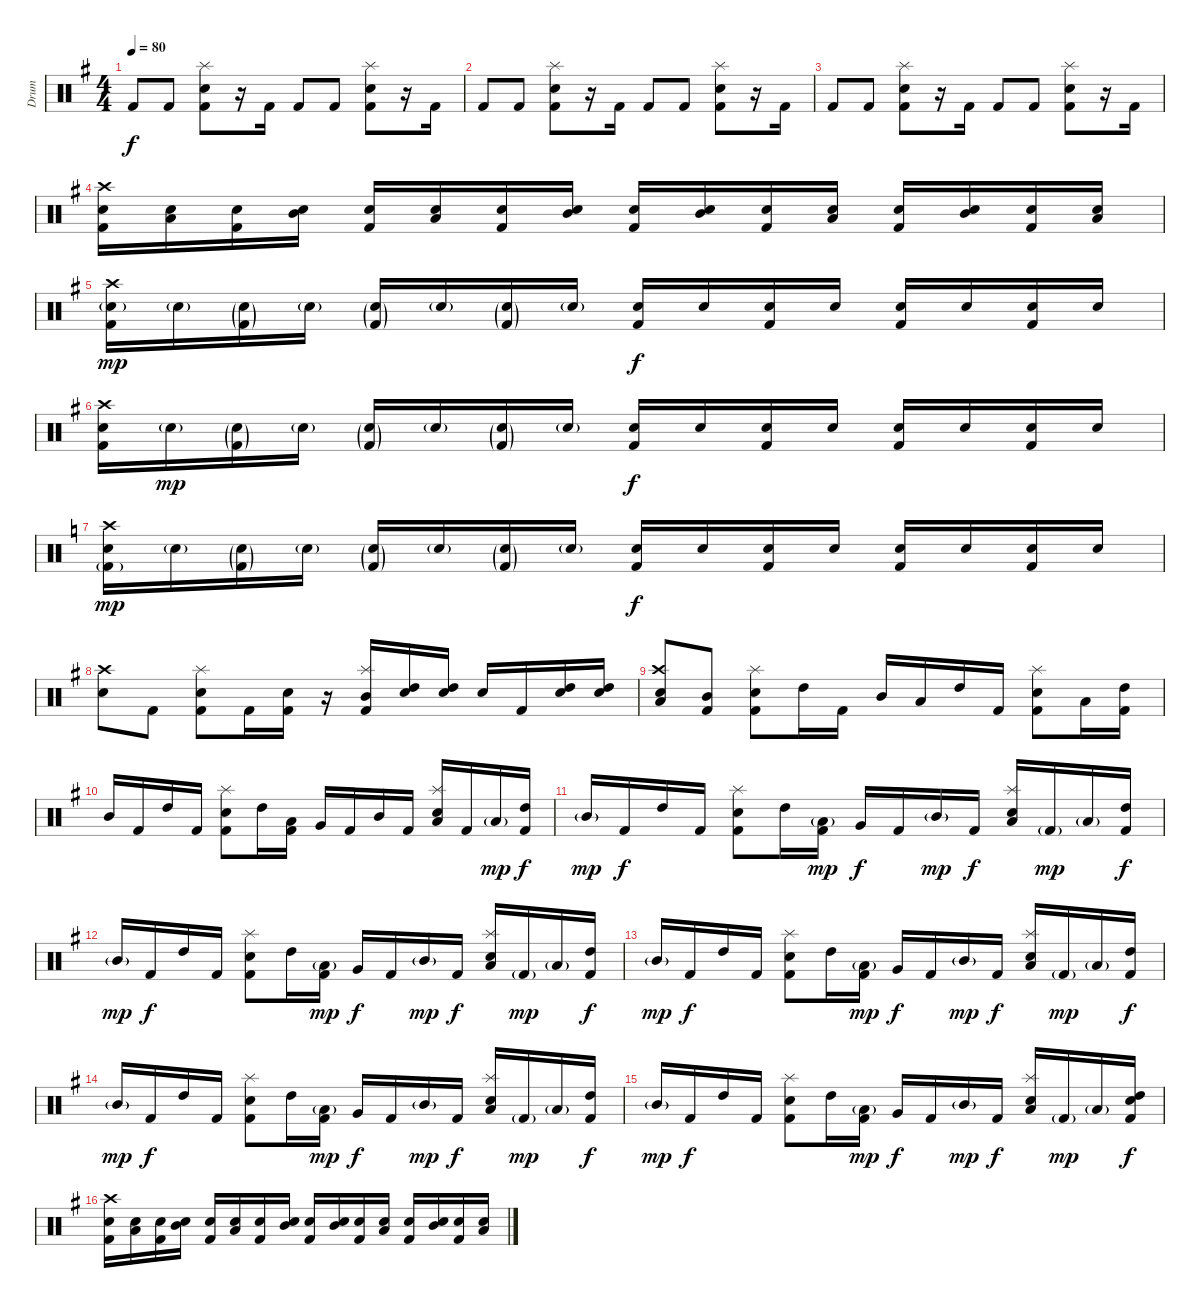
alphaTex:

\track ("Drum" "Drum") {instrument percussion}
\staff {score}
\articulation defaults
\ts (4 4)
\tempo 80
\clef neutral
\ks eminor "Kick (hit) 2".8{dy f} "Kick (hit) 2".8
("Electric Snare (hit)" "Kick (hit) 2" "Splash (hit)").8 r.16 "Kick (hit) 2".16 "Kick (hit) 2".8 "Kick (hit) 2".8 ("Electric Snare (hit)" "Kick (hit) 2" "Splash (hit)").8 r.16 "Kick (hit) 2".16 |
"Kick (hit) 2".8 "Kick (hit) 2".8 ("Electric Snare (hit)" "Kick (hit) 2" "Splash (hit)").8 r.16 "Kick (hit) 2".16 "Kick (hit) 2".8 "Kick (hit) 2".8 ("Electric Snare (hit)" "Kick (hit) 2" "Splash (hit)").8 r.16 "Kick (hit) 2".16 |
"Kick (hit) 2".8 "Kick (hit) 2".8 ("Electric Snare (hit)" "Kick (hit) 2" "Splash (hit)").8 r.16 "Kick (hit) 2".16 "Kick (hit) 2".8 "Kick (hit) 2".8 ("Electric Snare (hit)" "Kick (hit) 2" "Splash (hit)").8 r.16 "Kick (hit) 2".16 |
("Electric Snare (hit)" "Kick (hit) 2" "Crash high (hit)").16 ("Electric Snare (hit)" "Low Tom (hit)").16 ("Electric Snare (hit)" "Kick (hit) 2").16 ("Electric Snare (hit)" "Mid Tom (hit)").16 ("Electric Snare (hit)" "Kick (hit) 2").16 ("Electric Snare (hit)" "Low Tom (hit)").16 ("Electric Snare (hit)" "Kick (hit) 2").16 ("Electric Snare (hit)" "Mid Tom (hit)").16 ("Electric Snare (hit)" "Kick (hit) 2").16 ("Electric Snare (hit)" "Mid Tom (hit)").16 ("Electric Snare (hit)" "Kick (hit) 2").16 ("Electric Snare (hit)" "Low Tom (hit)").16 ("Electric Snare (hit)" "Kick (hit) 2").16 ("Electric Snare (hit)" "Mid Tom (hit)").16 ("Electric Snare (hit)" "Kick (hit) 2").16 ("Electric Snare (hit)" "Low Tom (hit)").16 |
("Electric Snare (hit)"{g} "Kick (hit) 2" "Crash high (hit)").16{dy mp} "Electric Snare (hit)"{g}.16 ("Electric Snare (hit)"{g} "Kick (hit) 2"{g}).16 "Electric Snare (hit)"{g}.16 ("Electric Snare (hit)"{g} "Kick (hit) 2"{g}).16 "Electric Snare (hit)"{g}.16 ("Electric Snare (hit)"{g} "Kick (hit) 2"{g}).16 "Electric Snare (hit)"{g}.16 ("Electric Snare (hit)" "Kick (hit) 2").16{dy f} "Electric Snare (hit)".16 ("Electric Snare (hit)" "Kick (hit) 2").16 "Electric Snare (hit)".16 ("Electric Snare (hit)" "Kick (hit) 2").16 "Electric Snare (hit)".16 ("Electric Snare (hit)" "Kick (hit) 2").16 "Electric Snare (hit)".16 |
("Electric Snare (hit)" "Kick (hit) 2" "Crash high (hit)").16 "Electric Snare (hit)"{g}.16{dy mp} ("Electric Snare (hit)"{g} "Kick (hit) 2"{g}).16 "Electric Snare (hit)"{g}.16 ("Electric Snare (hit)"{g} "Kick (hit) 2"{g}).16 "Electric Snare (hit)"{g}.16 ("Electric Snare (hit)"{g} "Kick (hit) 2"{g}).16 "Electric Snare (hit)"{g}.16 ("Electric Snare (hit)" "Kick (hit) 2").16{dy f} "Electric Snare (hit)".16 ("Electric Snare (hit)" "Kick (hit) 2").16 "Electric Snare (hit)".16 ("Electric Snare (hit)" "Kick (hit) 2").16 "Electric Snare (hit)".16 ("Electric Snare (hit)" "Kick (hit) 2").16 "Electric Snare (hit)".16 |
\ks c
("Electric Snare (hit)" "Kick (hit) 2"{g} "Crash high (hit)").16{dy mp} "Electric Snare (hit)"{g}.16 ("Electric Snare (hit)"{g} "Kick (hit) 2"{g}).16 "Electric Snare (hit)"{g}.16 ("Electric Snare (hit)"{g} "Kick (hit) 2"{g}).16 "Electric Snare (hit)"{g}.16 ("Electric Snare (hit)"{g} "Kick (hit) 2"{g}).16 "Electric Snare (hit)"{g}.16 ("Electric Snare (hit)" "Kick (hit) 2").16{dy f} "Electric Snare (hit)".16 ("Electric Snare (hit)" "Kick (hit) 2").16 "Electric Snare (hit)".16 ("Electric Snare (hit)" "Kick (hit) 2").16 "Electric Snare (hit)".16 ("Electric Snare (hit)" "Kick (hit) 2").16 "Electric Snare (hit)".16 |
\ks eminor
("Electric Snare (hit)" "Crash high (hit)").8 "Kick (hit) 2".8 ("Electric Snare (hit)" "Kick (hit) 2" "Splash (hit)").8 "Kick (hit) 2".16 ("Electric Snare (hit)" "Kick (hit) 2").16 r.16 ("Mid Tom (hit)" "Kick (hit) 2" "Splash (hit)").16 ("Electric Snare (hit)" "High Tom (hit)").16 ("Electric Snare (hit)" "High Tom (hit)").16 "Electric Snare (hit)".16 "Kick (hit) 2".16 ("Electric Snare (hit)" "High Tom (hit)").16 ("Electric Snare (hit)" "High Tom (hit)").16 |
("Electric Snare (hit)" "Low Tom (hit)" "Crash high (hit)").8 ("Mid Tom (hit)" "Kick (hit) 2").8 ("Electric Snare (hit)" "Kick (hit) 2" "Splash (hit)").8 "High Tom (hit)".16 "Kick (hit) 2".16 "Mid Tom (hit)".16 "Low Tom (hit)".16 "High Tom (hit)".16 "Kick (hit) 2".16 ("Electric Snare (hit)" "Kick (hit) 2" "Splash (hit)").8 "Low Tom (hit)".16 ("High Tom (hit)" "Kick (hit) 2").16 |
"Mid Tom (hit)".16 "Kick (hit) 2".16 "High Tom (hit)".16 "Kick (hit) 2".16 ("Electric Snare (hit)" "Kick (hit) 2" "Splash (hit)").8 "High Tom (hit)".16 ("Low Tom (hit)" "Kick (hit) 2").16 "Very Low Tom (hit)".16 "Kick (hit) 2".16 "Mid Tom (hit)".16 "Kick (hit) 2".16 ("Electric Snare (hit)" "Low Tom (hit)" "Splash (hit)").16 "Kick (hit) 2".16 "Low Tom (hit)"{g}.16{dy mp} ("High Tom (hit)" "Kick (hit) 2").16{dy f} |
"Mid Tom (hit)"{g}.16{dy mp} "Kick (hit) 2".16{dy f} "High Tom (hit)".16 "Kick (hit) 2".16 ("Electric Snare (hit)" "Kick (hit) 2" "Splash (hit)").8 "High Tom (hit)".16 ("Low Tom (hit)"{g} "Kick (hit) 2").16{dy mp} "Very Low Tom (hit)".16{dy f} "Kick (hit) 2".16 "Mid Tom (hit)"{g}.16{dy mp} "Kick (hit) 2".16{dy f} ("Electric Snare (hit)" "Low Tom (hit)" "Splash (hit)").16 "Kick (hit) 2"{g}.16{dy mp} "Low Tom (hit)"{g}.16 ("High Tom (hit)" "Kick (hit) 2").16{dy f} |
"Mid Tom (hit)"{g}.16{dy mp} "Kick (hit) 2".16{dy f} "High Tom (hit)".16 "Kick (hit) 2".16 ("Electric Snare (hit)" "Kick (hit) 2" "Splash (hit)").8 "High Tom (hit)".16 ("Low Tom (hit)"{g} "Kick (hit) 2").16{dy mp} "Very Low Tom (hit)".16{dy f} "Kick (hit) 2".16 "Mid Tom (hit)"{g}.16{dy mp} "Kick (hit) 2".16{dy f} ("Electric Snare (hit)" "Low Tom (hit)" "Splash (hit)").16 "Kick (hit) 2"{g}.16{dy mp} "Low Tom (hit)"{g}.16 ("High Tom (hit)" "Kick (hit) 2").16{dy f} |
"Mid Tom (hit)"{g}.16{dy mp} "Kick (hit) 2".16{dy f} "High Tom (hit)".16 "Kick (hit) 2".16 ("Electric Snare (hit)" "Kick (hit) 2" "Splash (hit)").8 "High Tom (hit)".16 ("Low Tom (hit)"{g} "Kick (hit) 2").16{dy mp} "Very Low Tom (hit)".16{dy f} "Kick (hit) 2".16 "Mid Tom (hit)"{g}.16{dy mp} "Kick (hit) 2".16{dy f} ("Electric Snare (hit)" "Low Tom (hit)" "Splash (hit)").16 "Kick (hit) 2"{g}.16{dy mp} "Low Tom (hit)"{g}.16 ("High Tom (hit)" "Kick (hit) 2").16{dy f} |
"Mid Tom (hit)"{g}.16{dy mp} "Kick (hit) 2".16{dy f} "High Tom (hit)".16 "Kick (hit) 2".16 ("Electric Snare (hit)" "Kick (hit) 2" "Splash (hit)").8 "High Tom (hit)".16 ("Low Tom (hit)"{g} "Kick (hit) 2").16{dy mp} "Very Low Tom (hit)".16{dy f} "Kick (hit) 2".16 "Mid Tom (hit)"{g}.16{dy mp} "Kick (hit) 2".16{dy f} ("Electric Snare (hit)" "Low Tom (hit)" "Splash (hit)").16 "Kick (hit) 2"{g}.16{dy mp} "Low Tom (hit)"{g}.16 ("High Tom (hit)" "Kick (hit) 2").16{dy f} |
"Mid Tom (hit)"{g}.16{dy mp} "Kick (hit) 2".16{dy f} "High Tom (hit)".16 "Kick (hit) 2".16 ("Electric Snare (hit)" "Kick (hit) 2" "Splash (hit)").8 "High Tom (hit)".16 ("Low Tom (hit)"{g} "Kick (hit) 2").16{dy mp} "Very Low Tom (hit)".16{dy f} "Kick (hit) 2".16 "Mid Tom (hit)"{g}.16{dy mp} "Kick (hit) 2".16{dy f} ("Electric Snare (hit)" "Low Tom (hit)" "Splash (hit)").16 "Kick (hit) 2"{g}.16{dy mp} "Low Tom (hit)"{g}.16 ("Electric Snare (hit)" "High Tom (hit)" "Kick (hit) 2").16{dy f} |
("Electric Snare (hit)" "Kick (hit) 2" "Crash high (hit)").16 ("Electric Snare (hit)" "Low Tom (hit)").16 ("Electric Snare (hit)" "Kick (hit) 2").16 ("Electric Snare (hit)" "Mid Tom (hit)").16 ("Electric Snare (hit)" "Kick (hit) 2").16 ("Electric Snare (hit)" "Low Tom (hit)").16 ("Electric Snare (hit)" "Kick (hit) 2").16 ("Electric Snare (hit)" "Mid Tom (hit)").16 ("Electric Snare (hit)" "Kick (hit) 2").16 ("Electric Snare (hit)" "Mid Tom (hit)").16 ("Electric Snare (hit)" "Kick (hit) 2").16 ("Electric Snare (hit)" "Low Tom (hit)").16 ("Electric Snare (hit)" "Kick (hit) 2").16 ("Electric Snare (hit)" "Mid Tom (hit)").16 ("Electric Snare (hit)" "Kick (hit) 2").16 ("Electric Snare (hit)" "Low Tom (hit)").16
